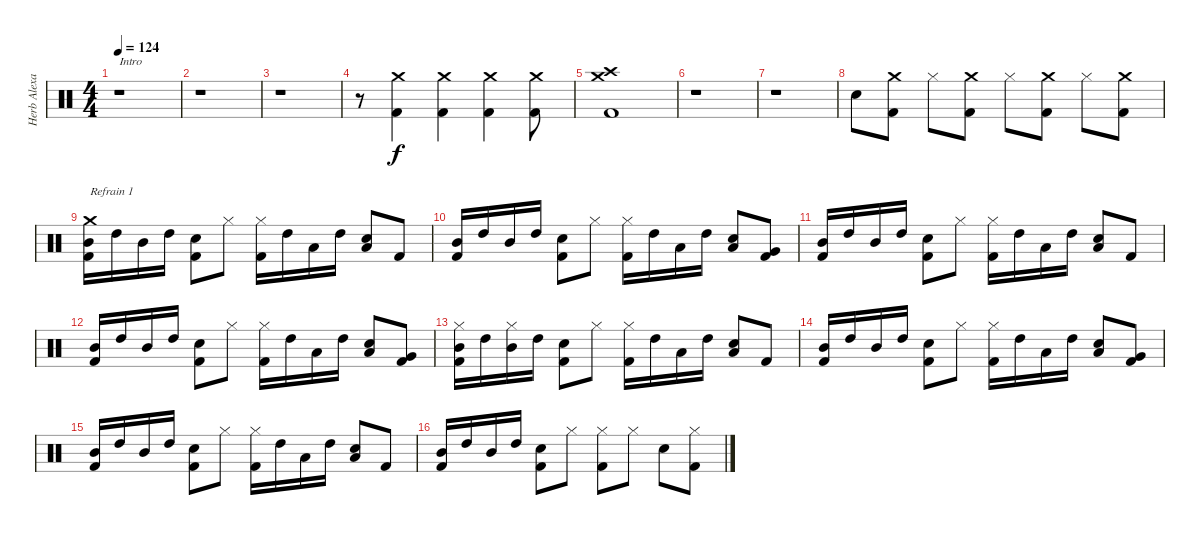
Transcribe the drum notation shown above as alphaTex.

\track ("Herb Alexander" "Herb Alexa") {instrument percussion}
\staff {score}
\articulation defaults
\ts (4 4)
\tempo 124
\clef neutral
\ks c
r.1{txt "Intro" dy f} |
r.1 |
r.1 |
r.8 ("Crash medium (hit)" "Kick (hit) 2").4 ("Crash medium (hit)" "Kick (hit) 2").4 ("Crash medium (hit)" "Kick (hit) 2").4 ("Crash medium (hit)" "Kick (hit) 2").8 |
("Crash medium (hit)" "Crash high (hit)" "Kick (hit) 2").1 |
r.1 |
r.1 |
"Electric Snare (hit)".8 ("Crash medium (hit)" "Kick (hit) 2").8 "Hi-Hat (closed)".8 ("Crash medium (hit)" "Kick (hit) 2").8 "Hi-Hat (closed)".8 ("Crash medium (hit)" "Kick (hit) 2").8 "Hi-Hat (closed)".8 ("Crash medium (hit)" "Kick (hit) 2").8 |
("Crash medium (hit)" "Mid Tom (hit)" "Kick (hit) 2").16{txt "Refrain 1"} "High Tom (hit)".16 "Mid Tom (hit)".16 "High Tom (hit)".16 ("Electric Snare (hit)" "Kick (hit) 2").8 "Hi-Hat (closed)".8 ("Hi-Hat (closed)" "Kick (hit) 2").16 "High Tom (hit)".16 "Low Tom (hit)".16 "High Tom (hit)".16 ("Low Tom (hit)" "Electric Snare (hit)").8 "Kick (hit) 2".8 |
("Mid Tom (hit)" "Kick (hit) 2").16 "High Tom (hit)".16 "Mid Tom (hit)".16 "High Tom (hit)".16 ("Electric Snare (hit)" "Kick (hit) 2").8 "Hi-Hat (closed)".8 ("Hi-Hat (closed)" "Kick (hit) 2").16 "High Tom (hit)".16 "Low Tom (hit)".16 "High Tom (hit)".16 ("Low Tom (hit)" "Electric Snare (hit)").8 ("Very Low Tom (hit)" "Kick (hit) 2").8 |
("Mid Tom (hit)" "Kick (hit) 2").16 "High Tom (hit)".16 "Mid Tom (hit)".16 "High Tom (hit)".16 ("Electric Snare (hit)" "Kick (hit) 2").8 "Hi-Hat (closed)".8 ("Hi-Hat (closed)" "Kick (hit) 2").16 "High Tom (hit)".16 "Low Tom (hit)".16 "High Tom (hit)".16 ("Low Tom (hit)" "Electric Snare (hit)").8 "Kick (hit) 2".8 |
("Mid Tom (hit)" "Kick (hit) 2").16 "High Tom (hit)".16 "Mid Tom (hit)".16 "High Tom (hit)".16 ("Electric Snare (hit)" "Kick (hit) 2").8 "Hi-Hat (closed)".8 ("Hi-Hat (closed)" "Kick (hit) 2").16 "High Tom (hit)".16 "Low Tom (hit)".16 "High Tom (hit)".16 ("Low Tom (hit)" "Electric Snare (hit)").8 ("Very Low Tom (hit)" "Kick (hit) 2").8 |
("Mid Tom (hit)" "Hi-Hat (closed)" "Kick (hit) 2").16 "High Tom (hit)".16 ("Mid Tom (hit)" "Hi-Hat (closed)").16 "High Tom (hit)".16 ("Electric Snare (hit)" "Kick (hit) 2").8 "Hi-Hat (closed)".8 ("Hi-Hat (closed)" "Kick (hit) 2").16 "High Tom (hit)".16 "Low Tom (hit)".16 "High Tom (hit)".16 ("Low Tom (hit)" "Electric Snare (hit)").8 "Kick (hit) 2".8 |
("Mid Tom (hit)" "Kick (hit) 2").16 "High Tom (hit)".16 "Mid Tom (hit)".16 "High Tom (hit)".16 ("Electric Snare (hit)" "Kick (hit) 2").8 "Hi-Hat (closed)".8 ("Hi-Hat (closed)" "Kick (hit) 2").16 "High Tom (hit)".16 "Low Tom (hit)".16 "High Tom (hit)".16 ("Low Tom (hit)" "Electric Snare (hit)").8 ("Very Low Tom (hit)" "Kick (hit) 2").8 |
("Mid Tom (hit)" "Kick (hit) 2").16 "High Tom (hit)".16 "Mid Tom (hit)".16 "High Tom (hit)".16 ("Electric Snare (hit)" "Kick (hit) 2").8 "Hi-Hat (closed)".8 ("Hi-Hat (closed)" "Kick (hit) 2").16 "High Tom (hit)".16 "Low Tom (hit)".16 "High Tom (hit)".16 ("Low Tom (hit)" "Electric Snare (hit)").8 "Kick (hit) 2".8 |
("Mid Tom (hit)" "Kick (hit) 2").16 "High Tom (hit)".16 "Mid Tom (hit)".16 "High Tom (hit)".16 ("Electric Snare (hit)" "Kick (hit) 2").8 "Hi-Hat (closed)".8 ("Hi-Hat (closed)" "Kick (hit) 2").8 "Hi-Hat (closed)".8 "Electric Snare (hit)".8 ("Hi-Hat (closed)" "Kick (hit) 2").8
